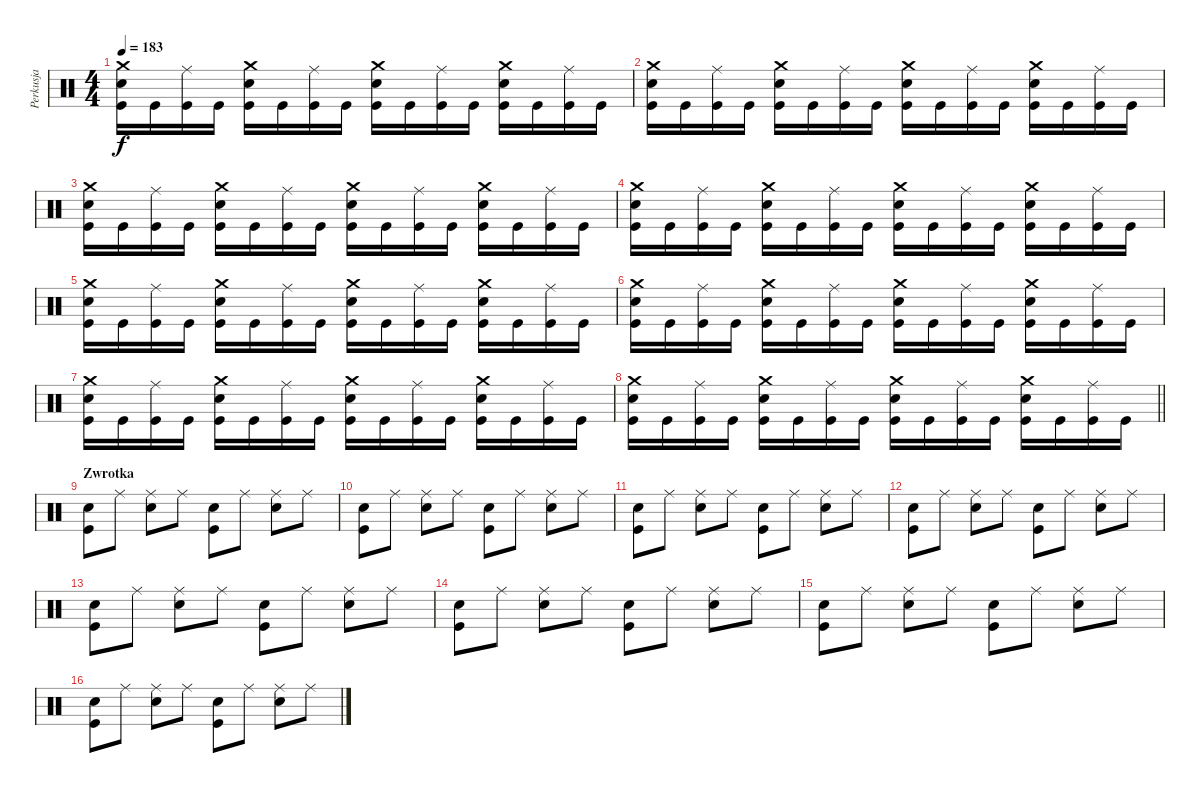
\track ("Perkusja" "Perkusja") {instrument percussion}
\staff {score}
\articulation defaults
\ts (4 4)
\tempo 183
\clef neutral
\ks c
("Kick (hit)" "Snare (hit) 2" "Crash medium (hit)").16{dy f} "Kick (hit)".16 ("Kick (hit)" "Ride (middle)").16 "Kick (hit)".16 ("Kick (hit)" "Crash medium (hit)" "Snare (hit) 2").16 "Kick (hit)".16 ("Kick (hit)" "Ride (middle)").16 "Kick (hit)".16 ("Kick (hit)" "Crash medium (hit)" "Snare (hit) 2").16 "Kick (hit)".16 ("Kick (hit)" "Ride (middle)").16 "Kick (hit)".16 ("Kick (hit)" "Crash medium (hit)" "Snare (hit) 2").16 "Kick (hit)".16 ("Kick (hit)" "Ride (middle)").16 "Kick (hit)".16 |
("Kick (hit)" "Snare (hit) 2" "Crash medium (hit)").16 "Kick (hit)".16 ("Kick (hit)" "Ride (middle)").16 "Kick (hit)".16 ("Kick (hit)" "Crash medium (hit)" "Snare (hit) 2").16 "Kick (hit)".16 ("Kick (hit)" "Ride (middle)").16 "Kick (hit)".16 ("Kick (hit)" "Crash medium (hit)" "Snare (hit) 2").16 "Kick (hit)".16 ("Kick (hit)" "Ride (middle)").16 "Kick (hit)".16 ("Kick (hit)" "Crash medium (hit)" "Snare (hit) 2").16 "Kick (hit)".16 ("Kick (hit)" "Ride (middle)").16 "Kick (hit)".16 |
("Kick (hit)" "Snare (hit) 2" "Crash medium (hit)").16 "Kick (hit)".16 ("Kick (hit)" "Ride (middle)").16 "Kick (hit)".16 ("Kick (hit)" "Crash medium (hit)" "Snare (hit) 2").16 "Kick (hit)".16 ("Kick (hit)" "Ride (middle)").16 "Kick (hit)".16 ("Kick (hit)" "Crash medium (hit)" "Snare (hit) 2").16 "Kick (hit)".16 ("Kick (hit)" "Ride (middle)").16 "Kick (hit)".16 ("Kick (hit)" "Crash medium (hit)" "Snare (hit) 2").16 "Kick (hit)".16 ("Kick (hit)" "Ride (middle)").16 "Kick (hit)".16 |
("Kick (hit)" "Snare (hit) 2" "Crash medium (hit)").16 "Kick (hit)".16 ("Kick (hit)" "Ride (middle)").16 "Kick (hit)".16 ("Kick (hit)" "Crash medium (hit)" "Snare (hit) 2").16 "Kick (hit)".16 ("Kick (hit)" "Ride (middle)").16 "Kick (hit)".16 ("Kick (hit)" "Crash medium (hit)" "Snare (hit) 2").16 "Kick (hit)".16 ("Kick (hit)" "Ride (middle)").16 "Kick (hit)".16 ("Kick (hit)" "Crash medium (hit)" "Snare (hit) 2").16 "Kick (hit)".16 ("Kick (hit)" "Ride (middle)").16 "Kick (hit)".16 |
("Kick (hit)" "Snare (hit) 2" "Crash medium (hit)").16 "Kick (hit)".16 ("Kick (hit)" "Ride (middle)").16 "Kick (hit)".16 ("Kick (hit)" "Crash medium (hit)" "Snare (hit) 2").16 "Kick (hit)".16 ("Kick (hit)" "Ride (middle)").16 "Kick (hit)".16 ("Kick (hit)" "Crash medium (hit)" "Snare (hit) 2").16 "Kick (hit)".16 ("Kick (hit)" "Ride (middle)").16 "Kick (hit)".16 ("Kick (hit)" "Crash medium (hit)" "Snare (hit) 2").16 "Kick (hit)".16 ("Kick (hit)" "Ride (middle)").16 "Kick (hit)".16 |
("Kick (hit)" "Snare (hit) 2" "Crash medium (hit)").16 "Kick (hit)".16 ("Kick (hit)" "Ride (middle)").16 "Kick (hit)".16 ("Kick (hit)" "Crash medium (hit)" "Snare (hit) 2").16 "Kick (hit)".16 ("Kick (hit)" "Ride (middle)").16 "Kick (hit)".16 ("Kick (hit)" "Crash medium (hit)" "Snare (hit) 2").16 "Kick (hit)".16 ("Kick (hit)" "Ride (middle)").16 "Kick (hit)".16 ("Kick (hit)" "Crash medium (hit)" "Snare (hit) 2").16 "Kick (hit)".16 ("Kick (hit)" "Ride (middle)").16 "Kick (hit)".16 |
("Kick (hit)" "Snare (hit) 2" "Crash medium (hit)").16 "Kick (hit)".16 ("Kick (hit)" "Ride (middle)").16 "Kick (hit)".16 ("Kick (hit)" "Crash medium (hit)" "Snare (hit) 2").16 "Kick (hit)".16 ("Kick (hit)" "Ride (middle)").16 "Kick (hit)".16 ("Kick (hit)" "Crash medium (hit)" "Snare (hit) 2").16 "Kick (hit)".16 ("Kick (hit)" "Ride (middle)").16 "Kick (hit)".16 ("Kick (hit)" "Crash medium (hit)" "Snare (hit) 2").16 "Kick (hit)".16 ("Kick (hit)" "Ride (middle)").16 "Kick (hit)".16 |
\barLineRight lightlight
("Kick (hit)" "Snare (hit) 2" "Crash medium (hit)").16 "Kick (hit)".16 ("Kick (hit)" "Ride (middle)").16 "Kick (hit)".16 ("Kick (hit)" "Crash medium (hit)" "Snare (hit) 2").16 "Kick (hit)".16 ("Kick (hit)" "Ride (middle)").16 "Kick (hit)".16 ("Kick (hit)" "Crash medium (hit)" "Snare (hit) 2").16 "Kick (hit)".16 ("Kick (hit)" "Ride (middle)").16 "Kick (hit)".16 ("Kick (hit)" "Crash medium (hit)" "Snare (hit) 2").16 "Kick (hit)".16 ("Kick (hit)" "Ride (middle)").16 "Kick (hit)".16 |
\section ("" "Zwrotka")
("Kick (hit)" "Snare (hit) 2").8 "Ride (middle)".8 ("Ride (middle)" "Snare (hit) 2").8 "Ride (middle)".8 ("Kick (hit)" "Snare (hit) 2").8 "Ride (middle)".8 ("Ride (middle)" "Snare (hit) 2").8 "Ride (middle)".8 |
("Kick (hit)" "Snare (hit) 2").8 "Ride (middle)".8 ("Ride (middle)" "Snare (hit) 2").8 "Ride (middle)".8 ("Kick (hit)" "Snare (hit) 2").8 "Ride (middle)".8 ("Ride (middle)" "Snare (hit) 2").8 "Ride (middle)".8 |
("Kick (hit)" "Snare (hit) 2").8 "Ride (middle)".8 ("Ride (middle)" "Snare (hit) 2").8 "Ride (middle)".8 ("Kick (hit)" "Snare (hit) 2").8 "Ride (middle)".8 ("Ride (middle)" "Snare (hit) 2").8 "Ride (middle)".8 |
("Kick (hit)" "Snare (hit) 2").8 "Ride (middle)".8 ("Ride (middle)" "Snare (hit) 2").8 "Ride (middle)".8 ("Kick (hit)" "Snare (hit) 2").8 "Ride (middle)".8 ("Ride (middle)" "Snare (hit) 2").8 "Ride (middle)".8 |
("Kick (hit)" "Snare (hit) 2").8 "Ride (middle)".8 ("Ride (middle)" "Snare (hit) 2").8 "Ride (middle)".8 ("Kick (hit)" "Snare (hit) 2").8 "Ride (middle)".8 ("Ride (middle)" "Snare (hit) 2").8 "Ride (middle)".8 |
("Kick (hit)" "Snare (hit) 2").8 "Ride (middle)".8 ("Ride (middle)" "Snare (hit) 2").8 "Ride (middle)".8 ("Kick (hit)" "Snare (hit) 2").8 "Ride (middle)".8 ("Ride (middle)" "Snare (hit) 2").8 "Ride (middle)".8 |
("Kick (hit)" "Snare (hit) 2").8 "Ride (middle)".8 ("Ride (middle)" "Snare (hit) 2").8 "Ride (middle)".8 ("Kick (hit)" "Snare (hit) 2").8 "Ride (middle)".8 ("Ride (middle)" "Snare (hit) 2").8 "Ride (middle)".8 |
("Kick (hit)" "Snare (hit) 2").8 "Ride (middle)".8 ("Ride (middle)" "Snare (hit) 2").8 "Ride (middle)".8 ("Kick (hit)" "Snare (hit) 2").8 "Ride (middle)".8 ("Ride (middle)" "Snare (hit) 2").8 "Ride (middle)".8
